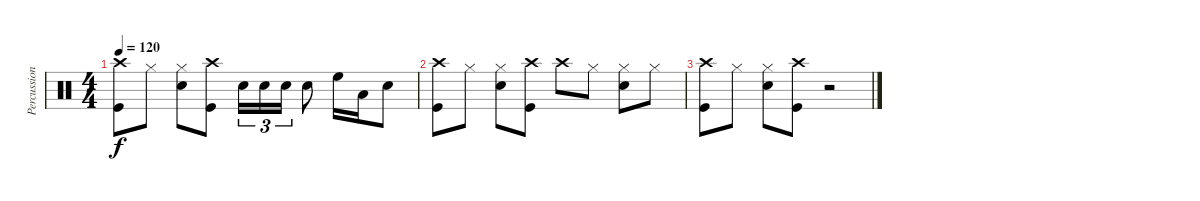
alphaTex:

\track ("Percussion" "Percussion") {instrument percussion}
\staff {score}
\articulation defaults
\ts (4 4)
\tempo 120
\clef neutral
\ks c
("Crash high (hit)" "Kick (hit)").8{dy f} "Hi-Hat (closed)".8 ("Hi-Hat (closed)" "Snare (hit) 2").8 ("Crash high (hit)" "Kick (hit)").8 "Snare (hit) 2".16{tu (3 2)} "Snare (hit) 2".16{tu (3 2)} "Snare (hit) 2".16{tu (3 2)} "Snare (hit) 2".8 "High Floor Tom (hit)".16 "Low Floor Tom (hit)".16 "Snare (hit) 2".8 |
("Crash high (hit)" "Kick (hit)").8 "Hi-Hat (closed)".8 ("Hi-Hat (closed)" "Snare (hit) 2").8 ("Crash high (hit)" "Kick (hit)").8 "Crash high (hit)".8 "Hi-Hat (closed)".8 ("Hi-Hat (closed)" "Snare (hit) 2").8 "Hi-Hat (closed)".8 |
("Crash high (hit)" "Kick (hit)").8 "Hi-Hat (closed)".8 ("Hi-Hat (closed)" "Snare (hit) 2").8 ("Crash high (hit)" "Kick (hit)").8 r.2
